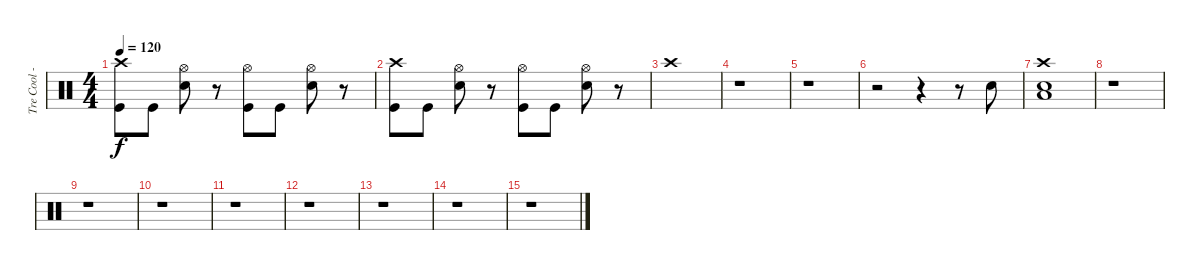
\track ("Tre Cool - Percussion" "Tre Cool -") {instrument percussion}
\staff {score}
\articulation defaults
\ts (4 4)
\tempo 120
\clef neutral
\ks c
("Crash high (hit)" "Kick (hit)").8{dy f} "Kick (hit)".8 ("Hi-Hat (open)" "Electric Snare (hit)").8 r.8 ("Hi-Hat (open)" "Kick (hit)").8 "Kick (hit)".8 ("Hi-Hat (open)" "Electric Snare (hit)").8 r.8 |
("Crash high (hit)" "Kick (hit)").8 "Kick (hit)".8 ("Hi-Hat (open)" "Electric Snare (hit)").8 r.8 ("Hi-Hat (open)" "Kick (hit)").8 "Kick (hit)".8 ("Hi-Hat (open)" "Electric Snare (hit)").8 r.8 |
"Crash high (hit)".1 |
r.1 |
r.1 |
r.2 r.4 r.8 "Electric Snare (hit)".8 |
("Crash high (hit)" "Electric Snare (hit)" "Low Tom (hit)").1 |
r.1 |
r.1 |
r.1 |
r.1 |
r.1 |
r.1 |
r.1 |
r.1
